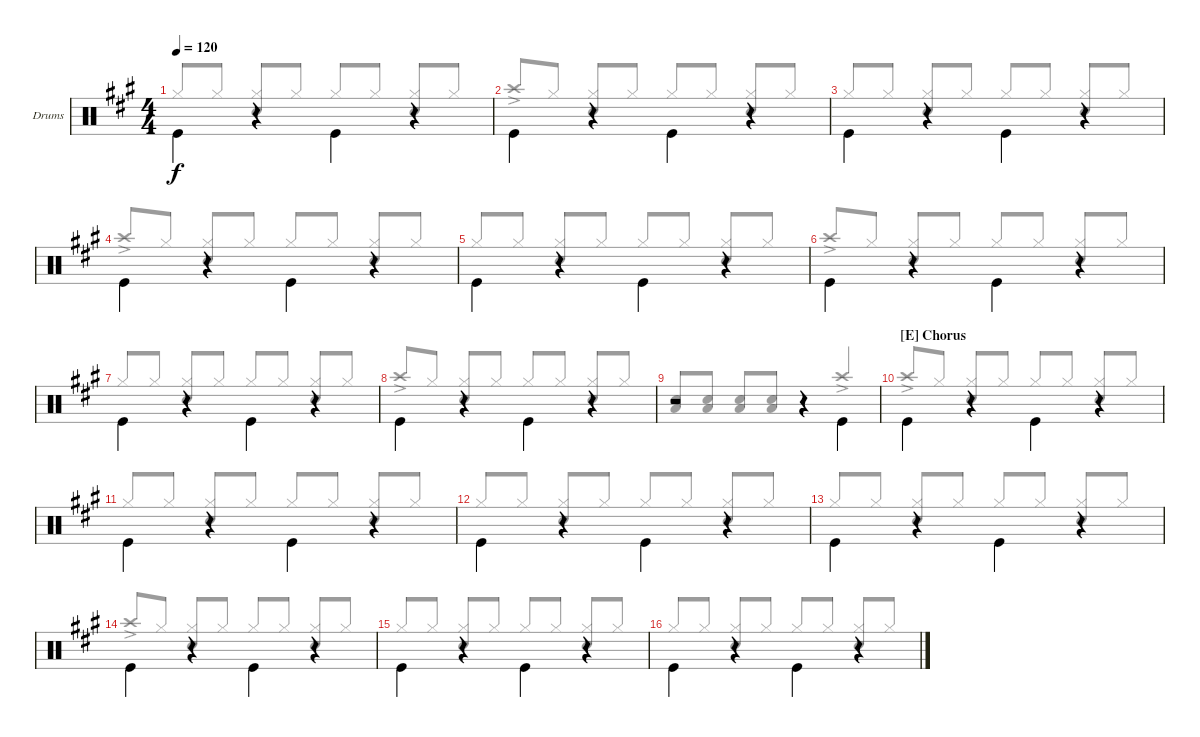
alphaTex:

\bracketExtendMode groupsimilarinstruments
\firstSystemTrackNameOrientation horizontal
\otherSystemsTrackNameOrientation horizontal
\track ("Drum" "Drums") {instrument percussion}
\staff {score}
\articulation defaults
\voice
\ts (4 4)
\tempo 120
\clef neutral
\scale
1.05801
\ks a "Kick (hit)".4{dy f beam invert}
r.4 "Kick (hit)".4{beam invert} r.4 |
\scale
0.941992 "Kick (hit)".4{beam invert} r.4 "Kick (hit)".4{beam invert} r.4 |
\scale
1.05801 "Kick (hit)".4{beam invert} r.4 "Kick (hit)".4{beam invert} r.4 |
\scale
0.941992 "Kick (hit)".4{beam invert} r.4 "Kick (hit)".4{beam invert} r.4 |
\scale
1.05801 "Kick (hit)".4{beam invert} r.4 "Kick (hit)".4{beam invert} r.4 |
\scale
0.941992 "Kick (hit)".4{beam invert} r.4 "Kick (hit)".4{beam invert} r.4 |
\scale
1.05801 "Kick (hit)".4{beam invert} r.4 "Kick (hit)".4{beam invert} r.4 |
\scale
0.941992 "Kick (hit)".4{beam invert} r.4 "Kick (hit)".4{beam invert} r.4 |
\scale
1.05801 r.2 r.4 "Kick (hit)".4{beam invert} |
\section ("E" "Chorus")
\scale
0.941992 "Kick (hit)".4{beam invert} r.4 "Kick (hit)".4{beam invert} r.4 |
\scale
1.05801 "Kick (hit)".4{beam invert} r.4 "Kick (hit)".4{beam invert} r.4 |
\scale
0.941992 "Kick (hit)".4{beam invert} r.4 "Kick (hit)".4{beam invert} r.4 |
\scale
1.05801 "Kick (hit)".4{beam invert} r.4 "Kick (hit)".4{beam invert} r.4 |
\scale
0.941992 "Kick (hit)".4{beam invert} r.4 "Kick (hit)".4{beam invert} r.4 |
\scale
1.05801 "Kick (hit)".4{beam invert} r.4 "Kick (hit)".4{beam invert} r.4 |
\scale
0.941992 "Kick (hit)".4{beam invert} r.4 "Kick (hit)".4{beam invert} r.4
\voice
\clef neutral
\ottava regular
\simile none
\scale
1.05801
\ks a "Hi-Hat (closed)".8{dy f beam invert} "Hi-Hat (closed)".8
("Hi-Hat (closed)" "Snare (hit) 2").8{beam invert} "Hi-Hat (closed)".8 "Hi-Hat (closed)".8{beam invert} "Hi-Hat (closed)".8 ("Hi-Hat (closed)" "Snare (hit) 2").8{beam invert} "Hi-Hat (closed)".8 |
\scale
0.941992 "Crash high (hit)"{ac}.8{beam invert} "Hi-Hat (closed)".8 ("Hi-Hat (closed)" "Snare (hit) 2").8{beam invert} "Hi-Hat (closed)".8 "Hi-Hat (closed)".8{beam invert} "Hi-Hat (closed)".8 ("Hi-Hat (closed)" "Snare (hit) 2").8{beam invert} "Hi-Hat (closed)".8 |
\scale
1.05801 "Hi-Hat (closed)".8{beam invert} "Hi-Hat (closed)".8 ("Hi-Hat (closed)" "Snare (hit) 2").8{beam invert} "Hi-Hat (closed)".8 "Hi-Hat (closed)".8{beam invert} "Hi-Hat (closed)".8 ("Hi-Hat (closed)" "Snare (hit) 2").8{beam invert} "Hi-Hat (closed)".8 |
\scale
0.941992 "Crash high (hit)"{ac}.8{beam invert} "Hi-Hat (closed)".8 ("Hi-Hat (closed)" "Snare (hit) 2").8{beam invert} "Hi-Hat (closed)".8 "Hi-Hat (closed)".8{beam invert} "Hi-Hat (closed)".8 ("Hi-Hat (closed)" "Snare (hit) 2").8{beam invert} "Hi-Hat (closed)".8 |
\scale
1.05801 "Hi-Hat (closed)".8{beam invert} "Hi-Hat (closed)".8 ("Hi-Hat (closed)" "Snare (hit) 2").8{beam invert} "Hi-Hat (closed)".8 "Hi-Hat (closed)".8{beam invert} "Hi-Hat (closed)".8 ("Hi-Hat (closed)" "Snare (hit) 2").8{beam invert} "Hi-Hat (closed)".8 |
\scale
0.941992 "Crash high (hit)"{ac}.8{beam invert} "Hi-Hat (closed)".8 ("Hi-Hat (closed)" "Snare (hit) 2").8{beam invert} "Hi-Hat (closed)".8 "Hi-Hat (closed)".8{beam invert} "Hi-Hat (closed)".8 ("Hi-Hat (closed)" "Snare (hit) 2").8{beam invert} "Hi-Hat (closed)".8 |
\scale
1.05801 "Hi-Hat (closed)".8{beam invert} "Hi-Hat (closed)".8 ("Hi-Hat (closed)" "Snare (hit) 2").8{beam invert} "Hi-Hat (closed)".8 "Hi-Hat (closed)".8{beam invert} "Hi-Hat (closed)".8 ("Hi-Hat (closed)" "Snare (hit) 2").8{beam invert} "Hi-Hat (closed)".8 |
\scale
0.941992 "Crash high (hit)"{ac}.8{beam invert} "Hi-Hat (closed)".8 ("Hi-Hat (closed)" "Snare (hit) 2").8{beam invert} "Hi-Hat (closed)".8 "Hi-Hat (closed)".8{beam invert} "Hi-Hat (closed)".8 ("Hi-Hat (closed)" "Snare (hit) 2").8{beam invert} "Hi-Hat (closed)".8 |
\scale
1.05801 ("Low Tom (hit)" "Snare (hit) 2").8{beam invert} ("Low Tom (hit)" "Snare (hit) 2").8 ("Low Tom (hit)" "Snare (hit) 2").8{beam invert} ("Low Tom (hit)" "Snare (hit) 2").8 r.4 "Crash high (hit)"{ac}.4{beam invert} |
\scale
0.941992 "Crash high (hit)"{ac}.8{beam invert} "Hi-Hat (closed)".8 ("Hi-Hat (closed)" "Snare (hit) 2").8{beam invert} "Hi-Hat (closed)".8 "Hi-Hat (closed)".8{beam invert} "Hi-Hat (closed)".8 ("Hi-Hat (closed)" "Snare (hit) 2").8{beam invert} "Hi-Hat (closed)".8 |
\scale
1.05801 "Hi-Hat (closed)".8{beam invert} "Hi-Hat (closed)".8 ("Hi-Hat (closed)" "Snare (hit) 2").8{beam invert} "Hi-Hat (closed)".8 "Hi-Hat (closed)".8{beam invert} "Hi-Hat (closed)".8 ("Hi-Hat (closed)" "Snare (hit) 2").8{beam invert} "Hi-Hat (closed)".8 |
\scale
0.941992 "Hi-Hat (closed)".8{beam invert} "Hi-Hat (closed)".8 ("Hi-Hat (closed)" "Snare (hit) 2").8{beam invert} "Hi-Hat (closed)".8 "Hi-Hat (closed)".8{beam invert} "Hi-Hat (closed)".8 ("Hi-Hat (closed)" "Snare (hit) 2").8{beam invert} "Hi-Hat (closed)".8 |
\scale
1.05801 "Hi-Hat (closed)".8{beam invert} "Hi-Hat (closed)".8 ("Hi-Hat (closed)" "Snare (hit) 2").8{beam invert} "Hi-Hat (closed)".8 "Hi-Hat (closed)".8{beam invert} "Hi-Hat (closed)".8 ("Hi-Hat (closed)" "Snare (hit) 2").8{beam invert} "Hi-Hat (closed)".8 |
\scale
0.941992 "Crash high (hit)"{ac}.8{beam invert} "Hi-Hat (closed)".8 ("Hi-Hat (closed)" "Snare (hit) 2").8{beam invert} "Hi-Hat (closed)".8 "Hi-Hat (closed)".8{beam invert} "Hi-Hat (closed)".8 ("Hi-Hat (closed)" "Snare (hit) 2").8{beam invert} "Hi-Hat (closed)".8 |
\scale
1.05801 "Hi-Hat (closed)".8{beam invert} "Hi-Hat (closed)".8 ("Hi-Hat (closed)" "Snare (hit) 2").8{beam invert} "Hi-Hat (closed)".8 "Hi-Hat (closed)".8{beam invert} "Hi-Hat (closed)".8 ("Hi-Hat (closed)" "Snare (hit) 2").8{beam invert} "Hi-Hat (closed)".8 |
\scale
0.941992 "Hi-Hat (closed)".8{beam invert} "Hi-Hat (closed)".8 ("Hi-Hat (closed)" "Snare (hit) 2").8{beam invert} "Hi-Hat (closed)".8 "Hi-Hat (closed)".8{beam invert} "Hi-Hat (closed)".8 ("Hi-Hat (closed)" "Snare (hit) 2").8{beam invert} "Hi-Hat (closed)".8
